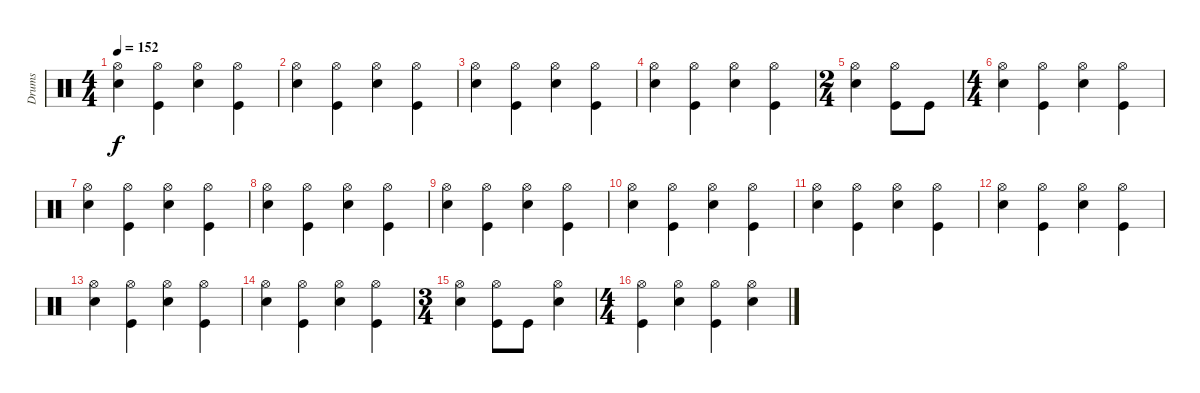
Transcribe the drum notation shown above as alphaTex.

\track ("Drums" "Drums") {instrument percussion}
\staff {score}
\articulation defaults
\ts (4 4)
\tempo 152
\clef neutral
\ks c
("Electric Snare (hit)" "Hi-Hat (open)").4{dy f} ("Kick (hit)" "Hi-Hat (open)").4 ("Electric Snare (hit)" "Hi-Hat (open)").4 ("Kick (hit)" "Hi-Hat (open)").4 |
("Electric Snare (hit)" "Hi-Hat (open)").4 ("Kick (hit)" "Hi-Hat (open)").4 ("Electric Snare (hit)" "Hi-Hat (open)").4 ("Kick (hit)" "Hi-Hat (open)").4 |
("Electric Snare (hit)" "Hi-Hat (open)").4 ("Kick (hit)" "Hi-Hat (open)").4 ("Electric Snare (hit)" "Hi-Hat (open)").4 ("Kick (hit)" "Hi-Hat (open)").4 |
("Electric Snare (hit)" "Hi-Hat (open)").4 ("Kick (hit)" "Hi-Hat (open)").4 ("Electric Snare (hit)" "Hi-Hat (open)").4 ("Kick (hit)" "Hi-Hat (open)").4 |
\ts (2 4)
("Electric Snare (hit)" "Hi-Hat (open)").4 ("Kick (hit)" "Hi-Hat (open)").8 "Kick (hit)".8 |
\ts (4 4)
("Electric Snare (hit)" "Hi-Hat (open)").4 ("Kick (hit)" "Hi-Hat (open)").4 ("Electric Snare (hit)" "Hi-Hat (open)").4 ("Kick (hit)" "Hi-Hat (open)").4 |
("Electric Snare (hit)" "Hi-Hat (open)").4 ("Kick (hit)" "Hi-Hat (open)").4 ("Electric Snare (hit)" "Hi-Hat (open)").4 ("Kick (hit)" "Hi-Hat (open)").4 |
("Electric Snare (hit)" "Hi-Hat (open)").4 ("Kick (hit)" "Hi-Hat (open)").4 ("Electric Snare (hit)" "Hi-Hat (open)").4 ("Kick (hit)" "Hi-Hat (open)").4 |
("Electric Snare (hit)" "Hi-Hat (open)").4 ("Kick (hit)" "Hi-Hat (open)").4 ("Electric Snare (hit)" "Hi-Hat (open)").4 ("Kick (hit)" "Hi-Hat (open)").4 |
("Electric Snare (hit)" "Hi-Hat (open)").4 ("Kick (hit)" "Hi-Hat (open)").4 ("Electric Snare (hit)" "Hi-Hat (open)").4 ("Kick (hit)" "Hi-Hat (open)").4 |
("Electric Snare (hit)" "Hi-Hat (open)").4 ("Kick (hit)" "Hi-Hat (open)").4 ("Electric Snare (hit)" "Hi-Hat (open)").4 ("Kick (hit)" "Hi-Hat (open)").4 |
("Electric Snare (hit)" "Hi-Hat (open)").4 ("Kick (hit)" "Hi-Hat (open)").4 ("Electric Snare (hit)" "Hi-Hat (open)").4 ("Kick (hit)" "Hi-Hat (open)").4 |
("Electric Snare (hit)" "Hi-Hat (open)").4 ("Kick (hit)" "Hi-Hat (open)").4 ("Electric Snare (hit)" "Hi-Hat (open)").4 ("Kick (hit)" "Hi-Hat (open)").4 |
("Electric Snare (hit)" "Hi-Hat (open)").4 ("Kick (hit)" "Hi-Hat (open)").4 ("Electric Snare (hit)" "Hi-Hat (open)").4 ("Kick (hit)" "Hi-Hat (open)").4 |
\ts (3 4)
("Electric Snare (hit)" "Hi-Hat (open)").4 ("Kick (hit)" "Hi-Hat (open)").8 "Kick (hit)".8 ("Electric Snare (hit)" "Hi-Hat (open)").4 |
\ts (4 4)
("Kick (hit)" "Hi-Hat (open)").4 ("Electric Snare (hit)" "Hi-Hat (open)").4 ("Kick (hit)" "Hi-Hat (open)").4 ("Electric Snare (hit)" "Hi-Hat (open)").4
